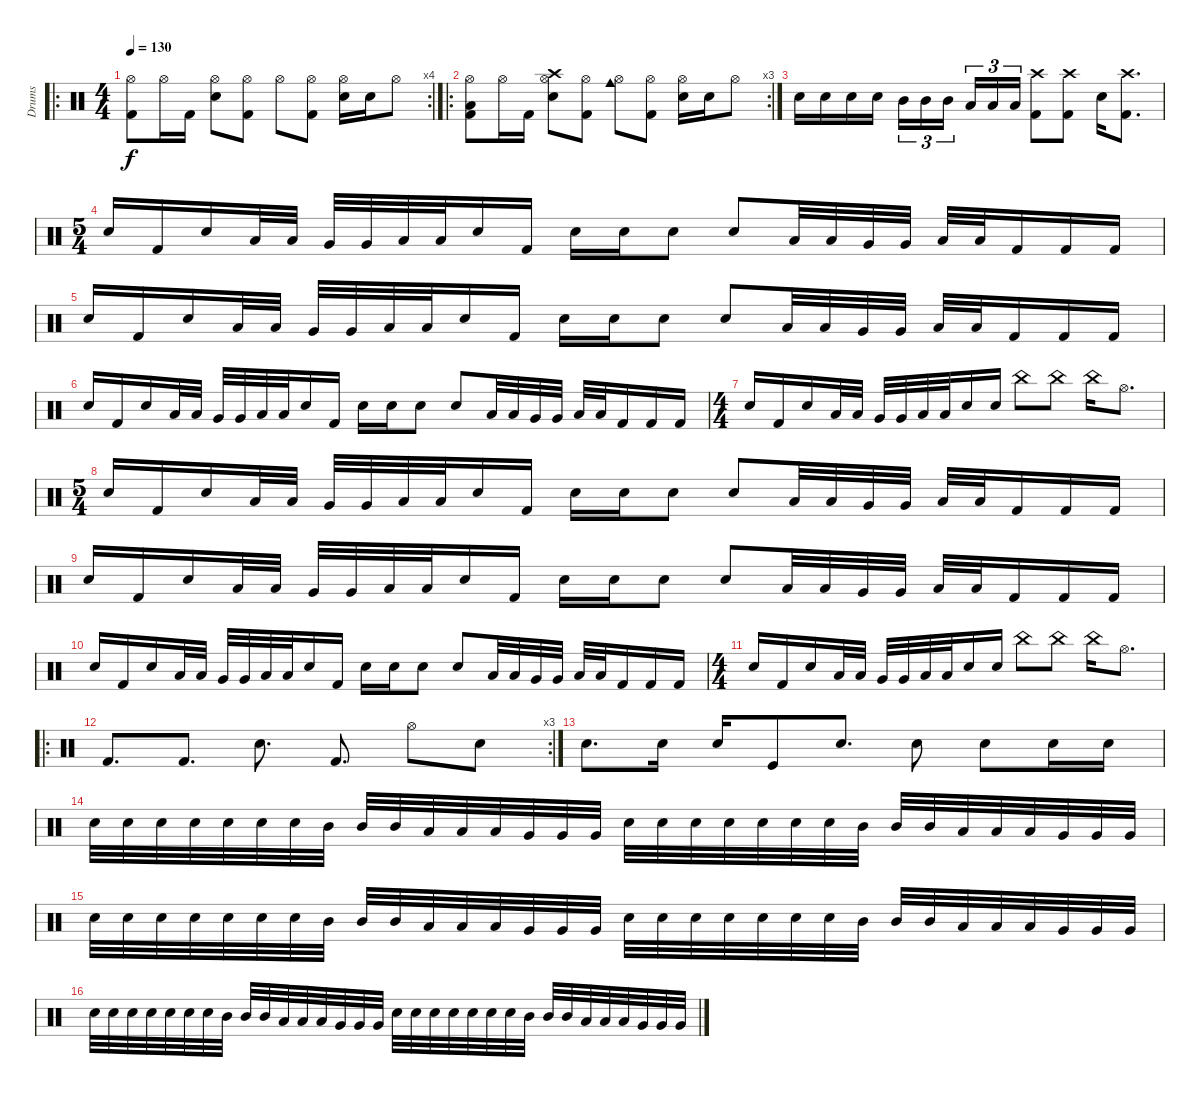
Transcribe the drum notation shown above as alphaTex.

\track ("Drums" "Drums") {instrument percussion}
\staff
\articulation defaults
\ro
\rc 4
\ts (4 4)
\tempo 130
\clef neutral
\ks c
("Hi-Hat (open)" "Kick (hit) 2").8{dy f} "Hi-Hat (open)".16 "Kick (hit) 2".16 ("Hi-Hat (open)" "Electric Snare (hit)").8 ("Hi-Hat (open)" "Kick (hit) 2").8 "Hi-Hat (open)".8 ("Hi-Hat (open)" "Kick (hit) 2").8 ("Hi-Hat (open)" "Electric Snare (hit)").16 "Electric Snare (hit)".16 "Hi-Hat (open)".8 |
\ro
\rc 3
("Low Tom (hit)" "Hi-Hat (open)" "Kick (hit) 2").8 "Hi-Hat (open)".16 "Kick (hit) 2".16 ("Crash high (hit)" "Hi-Hat (open)" "Electric Snare (hit)").8 ("Hi-Hat (open)" "Kick (hit) 2").8 ("Cowbell medium (hit)" "Hi-Hat (open)").8 ("Hi-Hat (open)" "Kick (hit) 2").8 ("Hi-Hat (open)" "Electric Snare (hit)").16 "Electric Snare (hit)".16 "Hi-Hat (open)".8 |
"Electric Snare (hit)".16 "Electric Snare (hit)".16 "Electric Snare (hit)".16 "Electric Snare (hit)".16 "Mid Tom (hit)".16{tu (3 2)} "Mid Tom (hit)".16{tu (3 2)} "Mid Tom (hit)".16{tu (3 2) beam splitsecondary} "Low Tom (hit)".16{tu (3 2)} "Low Tom (hit)".16{tu (3 2)} "Low Tom (hit)".16{tu (3 2)} ("Crash high (hit)" "Kick (hit) 2").8 ("Crash high (hit)" "Kick (hit) 2").8 "Electric Snare (hit)".16 ("Crash high (hit)" "Kick (hit) 2").8{d} |
\ts (5 4)
"Electric Snare (hit)".16 "Kick (hit) 2".16 "Electric Snare (hit)".16 "Low Tom (hit)".32 "Low Tom (hit)".32 "Very Low Tom (hit)".32 "Very Low Tom (hit)".32 "Low Floor Tom (hit)".32 "Low Floor Tom (hit)".32 "Electric Snare (hit)".16 "Kick (hit) 2".16 "Electric Snare (hit)".16 "Electric Snare (hit)".16 "Electric Snare (hit)".8 "Electric Snare (hit)".8 "Low Tom (hit)".32 "Low Tom (hit)".32 "Very Low Tom (hit)".32 "Very Low Tom (hit)".32 "Low Floor Tom (hit)".32 "Low Floor Tom (hit)".32 "Kick (hit) 2".16 "Kick (hit) 2".16 "Kick (hit) 2".16 |
"Electric Snare (hit)".16 "Kick (hit) 2".16 "Electric Snare (hit)".16 "Low Tom (hit)".32 "Low Tom (hit)".32 "Very Low Tom (hit)".32 "Very Low Tom (hit)".32 "Low Floor Tom (hit)".32 "Low Floor Tom (hit)".32 "Electric Snare (hit)".16 "Kick (hit) 2".16 "Electric Snare (hit)".16 "Electric Snare (hit)".16 "Electric Snare (hit)".8 "Electric Snare (hit)".8 "Low Tom (hit)".32 "Low Tom (hit)".32 "Very Low Tom (hit)".32 "Very Low Tom (hit)".32 "Low Floor Tom (hit)".32 "Low Floor Tom (hit)".32 "Kick (hit) 2".16 "Kick (hit) 2".16 "Kick (hit) 2".16 |
"Electric Snare (hit)".16 "Kick (hit) 2".16 "Electric Snare (hit)".16 "Low Tom (hit)".32 "Low Tom (hit)".32 "Very Low Tom (hit)".32 "Very Low Tom (hit)".32 "Low Floor Tom (hit)".32 "Low Floor Tom (hit)".32 "Electric Snare (hit)".16 "Kick (hit) 2".16 "Electric Snare (hit)".16 "Electric Snare (hit)".16 "Electric Snare (hit)".8 "Electric Snare (hit)".8 "Low Tom (hit)".32 "Low Tom (hit)".32 "Very Low Tom (hit)".32 "Very Low Tom (hit)".32 "Low Floor Tom (hit)".32 "Low Floor Tom (hit)".32 "Kick (hit) 2".16 "Kick (hit) 2".16 "Kick (hit) 2".16 |
\ts (4 4)
"Electric Snare (hit)".16 "Kick (hit) 2".16 "Electric Snare (hit)".16 "Low Tom (hit)".32 "Low Tom (hit)".32 "Very Low Tom (hit)".32 "Very Low Tom (hit)".32 "Low Floor Tom (hit)".32 "Low Floor Tom (hit)".32 "Electric Snare (hit)".16 "Electric Snare (hit)".16 "China (hit)".8 "China (hit)".8 "China (hit)".16 "Hi-Hat (open)".8{d} |
\ts (5 4)
"Electric Snare (hit)".16 "Kick (hit) 2".16 "Electric Snare (hit)".16 "Low Tom (hit)".32 "Low Tom (hit)".32 "Very Low Tom (hit)".32 "Very Low Tom (hit)".32 "Low Floor Tom (hit)".32 "Low Floor Tom (hit)".32 "Electric Snare (hit)".16 "Kick (hit) 2".16 "Electric Snare (hit)".16 "Electric Snare (hit)".16 "Electric Snare (hit)".8 "Electric Snare (hit)".8 "Low Tom (hit)".32 "Low Tom (hit)".32 "Very Low Tom (hit)".32 "Very Low Tom (hit)".32 "Low Floor Tom (hit)".32 "Low Floor Tom (hit)".32 "Kick (hit) 2".16 "Kick (hit) 2".16 "Kick (hit) 2".16 |
"Electric Snare (hit)".16 "Kick (hit) 2".16 "Electric Snare (hit)".16 "Low Tom (hit)".32 "Low Tom (hit)".32 "Very Low Tom (hit)".32 "Very Low Tom (hit)".32 "Low Floor Tom (hit)".32 "Low Floor Tom (hit)".32 "Electric Snare (hit)".16 "Kick (hit) 2".16 "Electric Snare (hit)".16 "Electric Snare (hit)".16 "Electric Snare (hit)".8 "Electric Snare (hit)".8 "Low Tom (hit)".32 "Low Tom (hit)".32 "Very Low Tom (hit)".32 "Very Low Tom (hit)".32 "Low Floor Tom (hit)".32 "Low Floor Tom (hit)".32 "Kick (hit) 2".16 "Kick (hit) 2".16 "Kick (hit) 2".16 |
"Electric Snare (hit)".16 "Kick (hit) 2".16 "Electric Snare (hit)".16 "Low Tom (hit)".32 "Low Tom (hit)".32 "Very Low Tom (hit)".32 "Very Low Tom (hit)".32 "Low Floor Tom (hit)".32 "Low Floor Tom (hit)".32 "Electric Snare (hit)".16 "Kick (hit) 2".16 "Electric Snare (hit)".16 "Electric Snare (hit)".16 "Electric Snare (hit)".8 "Electric Snare (hit)".8 "Low Tom (hit)".32 "Low Tom (hit)".32 "Very Low Tom (hit)".32 "Very Low Tom (hit)".32 "Low Floor Tom (hit)".32 "Low Floor Tom (hit)".32 "Kick (hit) 2".16 "Kick (hit) 2".16 "Kick (hit) 2".16 |
\ts (4 4)
"Electric Snare (hit)".16 "Kick (hit) 2".16 "Electric Snare (hit)".16 "Low Tom (hit)".32 "Low Tom (hit)".32 "Very Low Tom (hit)".32 "Very Low Tom (hit)".32 "Low Floor Tom (hit)".32 "Low Floor Tom (hit)".32 "Electric Snare (hit)".16 "Electric Snare (hit)".16 "China (hit)".8 "China (hit)".8 "China (hit)".16 "Hi-Hat (open)".8{d} |
\ro
\rc 3 "Kick (hit) 2".8{d} "Kick (hit) 2".8{d} "Electric Snare (hit)".8{d} "Kick (hit) 2".8{d} "Hi-Hat (open)".8 "Electric Snare (hit)".8
|
"Electric Snare (hit)".8{d} "Electric Snare (hit)".16 "Electric Snare (hit)".16 "Kick (hit)".8 "Electric Snare (hit)".8{d} "Electric Snare (hit)".8 "Electric Snare (hit)".8 "Electric Snare (hit)".16 "Electric Snare (hit)".16 |
"Electric Snare (hit)".32{volume 16} "Electric Snare (hit)".32 "Electric Snare (hit)".32 "Electric Snare (hit)".32 "Electric Snare (hit)".32 "Electric Snare (hit)".32 "Electric Snare (hit)".32 "Mid Tom (hit)".32 "Mid Tom (hit)".32 "Mid Tom (hit)".32 "Low Tom (hit)".32 "Low Tom (hit)".32 "Low Tom (hit)".32 "Very Low Tom (hit)".32 "Very Low Tom (hit)".32 "Very Low Tom (hit)".32 "Electric Snare (hit)".32 "Electric Snare (hit)".32 "Electric Snare (hit)".32 "Electric Snare (hit)".32 "Electric Snare (hit)".32 "Electric Snare (hit)".32 "Electric Snare (hit)".32 "Mid Tom (hit)".32 "Mid Tom (hit)".32 "Mid Tom (hit)".32 "Low Tom (hit)".32 "Low Tom (hit)".32 "Low Tom (hit)".32 "Very Low Tom (hit)".32 "Very Low Tom (hit)".32 "Very Low Tom (hit)".32 |
"Electric Snare (hit)".32 "Electric Snare (hit)".32 "Electric Snare (hit)".32 "Electric Snare (hit)".32 "Electric Snare (hit)".32 "Electric Snare (hit)".32 "Electric Snare (hit)".32 "Mid Tom (hit)".32 "Mid Tom (hit)".32 "Mid Tom (hit)".32 "Low Tom (hit)".32 "Low Tom (hit)".32 "Low Tom (hit)".32 "Very Low Tom (hit)".32 "Very Low Tom (hit)".32 "Very Low Tom (hit)".32 "Electric Snare (hit)".32 "Electric Snare (hit)".32 "Electric Snare (hit)".32 "Electric Snare (hit)".32 "Electric Snare (hit)".32 "Electric Snare (hit)".32 "Electric Snare (hit)".32 "Mid Tom (hit)".32 "Mid Tom (hit)".32 "Mid Tom (hit)".32 "Low Tom (hit)".32 "Low Tom (hit)".32 "Low Tom (hit)".32 "Very Low Tom (hit)".32 "Very Low Tom (hit)".32 "Very Low Tom (hit)".32 |
"Electric Snare (hit)".32 "Electric Snare (hit)".32 "Electric Snare (hit)".32 "Electric Snare (hit)".32 "Electric Snare (hit)".32 "Electric Snare (hit)".32 "Electric Snare (hit)".32 "Mid Tom (hit)".32 "Mid Tom (hit)".32 "Mid Tom (hit)".32 "Low Tom (hit)".32 "Low Tom (hit)".32 "Low Tom (hit)".32 "Very Low Tom (hit)".32 "Very Low Tom (hit)".32 "Very Low Tom (hit)".32 "Electric Snare (hit)".32 "Electric Snare (hit)".32 "Electric Snare (hit)".32 "Electric Snare (hit)".32 "Electric Snare (hit)".32 "Electric Snare (hit)".32 "Electric Snare (hit)".32 "Mid Tom (hit)".32 "Mid Tom (hit)".32 "Mid Tom (hit)".32 "Low Tom (hit)".32 "Low Tom (hit)".32 "Low Tom (hit)".32 "Very Low Tom (hit)".32 "Very Low Tom (hit)".32 "Very Low Tom (hit)".32
